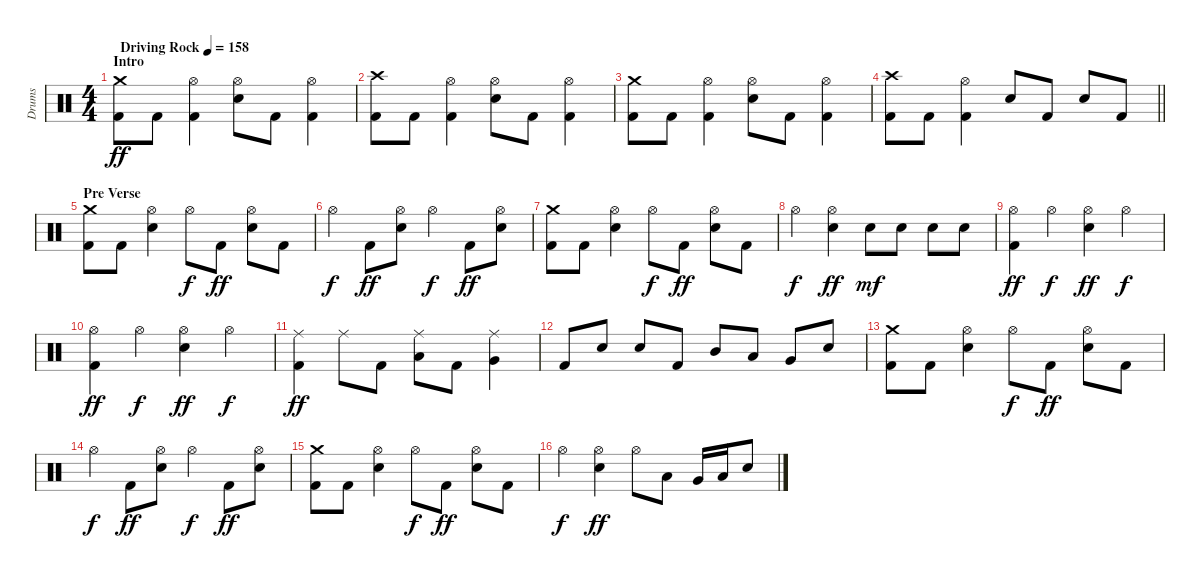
\track ("Drums" "Drums") {instrument percussion}
\staff {score}
\articulation defaults
\ts (4 4)
\section ("" "Intro")
\tempo (158 "Driving Rock")
\clef neutral
\ks c
("Crash medium (hit)" "Kick (hit) 2").8{dy ff} "Kick (hit) 2".8 ("Hi-Hat (open)" "Kick (hit) 2").4 ("Hi-Hat (open)" "Electric Snare (hit)").8 "Kick (hit) 2".8 ("Hi-Hat (open)" "Kick (hit) 2").4 |
("Crash high (hit)" "Kick (hit) 2").8 "Kick (hit) 2".8 ("Hi-Hat (open)" "Kick (hit) 2").4 ("Hi-Hat (open)" "Electric Snare (hit)").8 "Kick (hit) 2".8 ("Hi-Hat (open)" "Kick (hit) 2").4 |
("Crash medium (hit)" "Kick (hit) 2").8 "Kick (hit) 2".8 ("Hi-Hat (open)" "Kick (hit) 2").4 ("Hi-Hat (open)" "Electric Snare (hit)").8 "Kick (hit) 2".8 ("Hi-Hat (open)" "Kick (hit) 2").4 |
\barLineRight lightlight
("Crash high (hit)" "Kick (hit) 2").8 "Kick (hit) 2".8 ("Hi-Hat (open)" "Kick (hit) 2").4 "Electric Snare (hit)".8 "Kick (hit) 2".8 "Electric Snare (hit)".8 "Kick (hit) 2".8 |
\section ("" "Pre Verse")
("Crash medium (hit)" "Kick (hit) 2").8 "Kick (hit) 2".8 ("Hi-Hat (open)" "Electric Snare (hit)").4 "Hi-Hat (open)".8{dy f} "Kick (hit) 2".8{dy ff} ("Hi-Hat (open)" "Electric Snare (hit)").8 "Kick (hit) 2".8 |
"Hi-Hat (open)".4{dy f} "Kick (hit) 2".8{dy ff} ("Hi-Hat (open)" "Electric Snare (hit)").8 "Hi-Hat (open)".4{dy f} "Kick (hit) 2".8{dy ff} ("Hi-Hat (open)" "Electric Snare (hit)").8 |
("Crash medium (hit)" "Kick (hit) 2").8 "Kick (hit) 2".8 ("Hi-Hat (open)" "Electric Snare (hit)").4 "Hi-Hat (open)".8{dy f} "Kick (hit) 2".8{dy ff} ("Hi-Hat (open)" "Electric Snare (hit)").8 "Kick (hit) 2".8 |
"Hi-Hat (open)".4{dy f} ("Hi-Hat (open)" "Electric Snare (hit)").4{dy ff} "Electric Snare (hit)".8{dy mf} "Electric Snare (hit)".8 "Electric Snare (hit)".8 "Electric Snare (hit)".8 |
("Hi-Hat (open)" "Kick (hit) 2").4{dy ff} "Hi-Hat (open)".4{dy f} ("Hi-Hat (open)" "Electric Snare (hit)").4{dy ff} "Hi-Hat (open)".4{dy f} |
("Hi-Hat (open)" "Kick (hit) 2").4{dy ff} "Hi-Hat (open)".4{dy f} ("Hi-Hat (open)" "Electric Snare (hit)").4{dy ff} "Hi-Hat (open)".4{dy f} |
("Ride (middle)" "Kick (hit) 2").4{dy ff} "Ride (middle)".8 "Kick (hit) 2".8 ("Ride (middle)" "Low Tom (hit)").8 "Kick (hit) 2".8 ("Ride (middle)" "Very Low Tom (hit)").4 |
"Kick (hit) 2".8 "Electric Snare (hit)".8 "Electric Snare (hit)".8 "Kick (hit) 2".8 "Mid Tom (hit)".8 "Low Tom (hit)".8 "Very Low Tom (hit)".8 "Electric Snare (hit)".8 |
("Crash medium (hit)" "Kick (hit) 2").8 "Kick (hit) 2".8 ("Hi-Hat (open)" "Electric Snare (hit)").4 "Hi-Hat (open)".8{dy f} "Kick (hit) 2".8{dy ff} ("Hi-Hat (open)" "Electric Snare (hit)").8 "Kick (hit) 2".8 |
"Hi-Hat (open)".4{dy f} "Kick (hit) 2".8{dy ff} ("Hi-Hat (open)" "Electric Snare (hit)").8 "Hi-Hat (open)".4{dy f} "Kick (hit) 2".8{dy ff} ("Hi-Hat (open)" "Electric Snare (hit)").8 |
("Crash medium (hit)" "Kick (hit) 2").8 "Kick (hit) 2".8 ("Hi-Hat (open)" "Electric Snare (hit)").4 "Hi-Hat (open)".8{dy f} "Kick (hit) 2".8{dy ff} ("Hi-Hat (open)" "Electric Snare (hit)").8 "Kick (hit) 2".8 |
"Hi-Hat (open)".4{dy f} ("Hi-Hat (open)" "Electric Snare (hit)").4{dy ff} "Hi-Hat (open)".8 "Low Tom (hit)".8 "Very Low Tom (hit)".16 "Low Floor Tom (hit)".16 "Electric Snare (hit)".8
